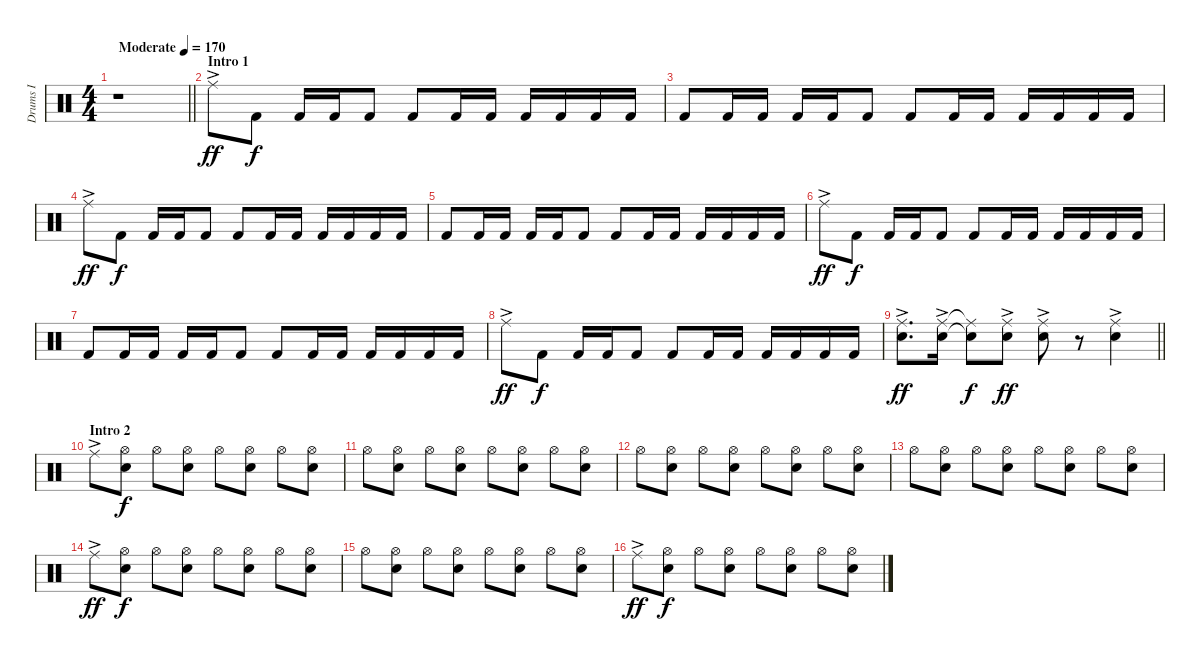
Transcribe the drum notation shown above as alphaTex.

\track ("Drums I" "Drums I") {instrument percussion}
\staff {score}
\articulation defaults
\ts (4 4)
\tempo (170 "Moderate")
\clef neutral
\barLineRight lightlight
\ks c
r.1{dy ff} |
\section ("" "Intro 1")
"Ride (middle)"{ac}.8 "Kick (hit) 2".8{dy f} "Kick (hit) 2".16 "Kick (hit) 2".16 "Kick (hit) 2".8 "Kick (hit) 2".8 "Kick (hit) 2".16 "Kick (hit) 2".16 "Kick (hit) 2".16 "Kick (hit) 2".16 "Kick (hit) 2".16 "Kick (hit) 2".16 |
"Kick (hit) 2".8 "Kick (hit) 2".16 "Kick (hit) 2".16 "Kick (hit) 2".16 "Kick (hit) 2".16 "Kick (hit) 2".8 "Kick (hit) 2".8 "Kick (hit) 2".16 "Kick (hit) 2".16 "Kick (hit) 2".16 "Kick (hit) 2".16 "Kick (hit) 2".16 "Kick (hit) 2".16 |
"Ride (middle)"{ac}.8{dy ff} "Kick (hit) 2".8{dy f} "Kick (hit) 2".16 "Kick (hit) 2".16 "Kick (hit) 2".8 "Kick (hit) 2".8 "Kick (hit) 2".16 "Kick (hit) 2".16 "Kick (hit) 2".16 "Kick (hit) 2".16 "Kick (hit) 2".16 "Kick (hit) 2".16 |
"Kick (hit) 2".8 "Kick (hit) 2".16 "Kick (hit) 2".16 "Kick (hit) 2".16 "Kick (hit) 2".16 "Kick (hit) 2".8 "Kick (hit) 2".8 "Kick (hit) 2".16 "Kick (hit) 2".16 "Kick (hit) 2".16 "Kick (hit) 2".16 "Kick (hit) 2".16 "Kick (hit) 2".16 |
"Ride (middle)"{ac}.8{dy ff} "Kick (hit) 2".8{dy f} "Kick (hit) 2".16 "Kick (hit) 2".16 "Kick (hit) 2".8 "Kick (hit) 2".8 "Kick (hit) 2".16 "Kick (hit) 2".16 "Kick (hit) 2".16 "Kick (hit) 2".16 "Kick (hit) 2".16 "Kick (hit) 2".16 |
"Kick (hit) 2".8 "Kick (hit) 2".16 "Kick (hit) 2".16 "Kick (hit) 2".16 "Kick (hit) 2".16 "Kick (hit) 2".8 "Kick (hit) 2".8 "Kick (hit) 2".16 "Kick (hit) 2".16 "Kick (hit) 2".16 "Kick (hit) 2".16 "Kick (hit) 2".16 "Kick (hit) 2".16 |
"Ride (middle)"{ac}.8{dy ff} "Kick (hit) 2".8{dy f} "Kick (hit) 2".16 "Kick (hit) 2".16 "Kick (hit) 2".8 "Kick (hit) 2".8 "Kick (hit) 2".16 "Kick (hit) 2".16 "Kick (hit) 2".16 "Kick (hit) 2".16 "Kick (hit) 2".16 "Kick (hit) 2".16 |
\barLineRight lightlight
("Ride (middle)"{ac} "Snare (hit) 2").8{d dy ff} ("Ride (middle)"{ac} "Snare (hit) 2").16 ("Ride (middle)"{t} "Snare (hit) 2"{t}).8{dy f} ("Ride (middle)"{ac} "Snare (hit) 2").8{dy ff} ("Ride (middle)"{ac} "Snare (hit) 2").8 r.8 ("Ride (middle)"{ac} "Snare (hit) 2").4 |
\section ("" "Intro 2")
"Ride (middle)"{ac}.8 ("Hi-Hat (open)" "Snare (hit) 2").8{dy f} "Hi-Hat (open)".8 ("Hi-Hat (open)" "Snare (hit) 2").8 "Hi-Hat (open)".8 ("Hi-Hat (open)" "Snare (hit) 2").8 "Hi-Hat (open)".8 ("Hi-Hat (open)" "Snare (hit) 2").8 |
"Hi-Hat (open)".8 ("Hi-Hat (open)" "Snare (hit) 2").8 "Hi-Hat (open)".8 ("Hi-Hat (open)" "Snare (hit) 2").8 "Hi-Hat (open)".8 ("Hi-Hat (open)" "Snare (hit) 2").8 "Hi-Hat (open)".8 ("Hi-Hat (open)" "Snare (hit) 2").8 |
"Hi-Hat (open)".8 ("Hi-Hat (open)" "Snare (hit) 2").8 "Hi-Hat (open)".8 ("Hi-Hat (open)" "Snare (hit) 2").8 "Hi-Hat (open)".8 ("Hi-Hat (open)" "Snare (hit) 2").8 "Hi-Hat (open)".8 ("Hi-Hat (open)" "Snare (hit) 2").8 |
"Hi-Hat (open)".8 ("Hi-Hat (open)" "Snare (hit) 2").8 "Hi-Hat (open)".8 ("Hi-Hat (open)" "Snare (hit) 2").8 "Hi-Hat (open)".8 ("Hi-Hat (open)" "Snare (hit) 2").8 "Hi-Hat (open)".8 ("Hi-Hat (open)" "Snare (hit) 2").8 |
"Ride (middle)"{ac}.8{dy ff} ("Hi-Hat (open)" "Snare (hit) 2").8{dy f} "Hi-Hat (open)".8 ("Hi-Hat (open)" "Snare (hit) 2").8 "Hi-Hat (open)".8 ("Hi-Hat (open)" "Snare (hit) 2").8 "Hi-Hat (open)".8 ("Hi-Hat (open)" "Snare (hit) 2").8 |
"Hi-Hat (open)".8 ("Hi-Hat (open)" "Snare (hit) 2").8 "Hi-Hat (open)".8 ("Hi-Hat (open)" "Snare (hit) 2").8 "Hi-Hat (open)".8 ("Hi-Hat (open)" "Snare (hit) 2").8 "Hi-Hat (open)".8 ("Hi-Hat (open)" "Snare (hit) 2").8 |
"Ride (middle)"{ac}.8{dy ff} ("Hi-Hat (open)" "Snare (hit) 2").8{dy f} "Hi-Hat (open)".8 ("Hi-Hat (open)" "Snare (hit) 2").8 "Hi-Hat (open)".8 ("Hi-Hat (open)" "Snare (hit) 2").8 "Hi-Hat (open)".8 ("Hi-Hat (open)" "Snare (hit) 2").8
